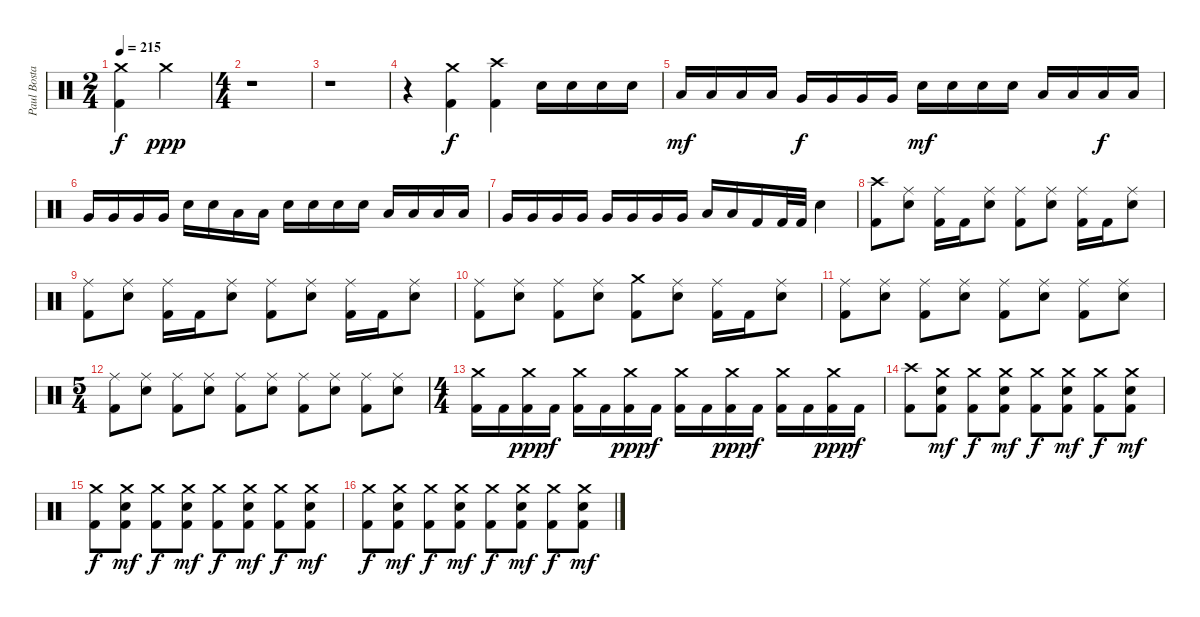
\track ("Paul Bostaph" "Paul Bosta") {instrument percussion}
\staff {score}
\articulation defaults
\ts (2 4)
\tempo 215
\clef neutral
\ks c
("Kick (hit) 2" "Crash medium (hit)").4{dy f} "Crash medium (hit)".4{dy ppp} |
\ts (4 4)
r.1 |
r.1 |
r.4 ("Kick (hit) 2" "Crash medium (hit)").4{dy f} ("Kick (hit) 2" "Crash high (hit)").4 "Electric Snare (hit)".16 "Electric Snare (hit)".16 "Electric Snare (hit)".16 "Electric Snare (hit)".16 |
"Low Tom (hit)".16{dy mf} "Low Tom (hit)".16 "Low Tom (hit)".16 "Low Tom (hit)".16 "Very Low Tom (hit)".16{dy f} "Very Low Tom (hit)".16 "Very Low Tom (hit)".16 "Very Low Tom (hit)".16 "Electric Snare (hit)".16{dy mf} "Electric Snare (hit)".16 "Electric Snare (hit)".16 "Electric Snare (hit)".16 "Low Tom (hit)".16 "Low Tom (hit)".16 "Low Tom (hit)".16{dy f} "Low Tom (hit)".16 |
"Very Low Tom (hit)".16 "Very Low Tom (hit)".16 "Very Low Tom (hit)".16 "Very Low Tom (hit)".16 "Electric Snare (hit)".16 "Electric Snare (hit)".16 "Low Tom (hit)".16 "Low Tom (hit)".16 "Electric Snare (hit)".16 "Electric Snare (hit)".16 "Electric Snare (hit)".16 "Electric Snare (hit)".16 "Low Tom (hit)".16 "Low Tom (hit)".16 "Low Tom (hit)".16 "Low Tom (hit)".16 |
"Very Low Tom (hit)".16 "Very Low Tom (hit)".16 "Very Low Tom (hit)".16 "Very Low Tom (hit)".16 "Very Low Tom (hit)".16 "Very Low Tom (hit)".16 "Very Low Tom (hit)".16 "Very Low Tom (hit)".16 "Low Floor Tom (hit)".16 "Low Floor Tom (hit)".16 "Kick (hit) 2".16 "Kick (hit) 2".32 "Kick (hit) 2".32 "Electric Snare (hit)".4 |
("Kick (hit) 2" "Crash high (hit)").8 ("Electric Snare (hit)" "Ride (middle)").8 ("Kick (hit) 2" "Ride (middle)").16 "Kick (hit) 2".16 ("Electric Snare (hit)" "Ride (middle)").8 ("Kick (hit) 2" "Ride (middle)").8 ("Electric Snare (hit)" "Ride (middle)").8 ("Kick (hit) 2" "Ride (middle)").16 "Kick (hit) 2".16 ("Electric Snare (hit)" "Ride (middle)").8 |
("Kick (hit) 2" "Ride (middle)").8 ("Electric Snare (hit)" "Ride (middle)").8 ("Kick (hit) 2" "Ride (middle)").16 "Kick (hit) 2".16 ("Electric Snare (hit)" "Ride (middle)").8 ("Kick (hit) 2" "Ride (middle)").8 ("Electric Snare (hit)" "Ride (middle)").8 ("Kick (hit) 2" "Ride (middle)").16 "Kick (hit) 2".16 ("Electric Snare (hit)" "Ride (middle)").8 |
("Kick (hit) 2" "Ride (middle)").8 ("Electric Snare (hit)" "Ride (middle)").8 ("Kick (hit) 2" "Ride (middle)").8 ("Electric Snare (hit)" "Ride (middle)").8 ("Kick (hit) 2" "Crash medium (hit)").8 ("Electric Snare (hit)" "Ride (middle)").8 ("Kick (hit) 2" "Ride (middle)").16 "Kick (hit) 2".16 ("Electric Snare (hit)" "Ride (middle)").8 |
("Kick (hit) 2" "Ride (middle)").8 ("Electric Snare (hit)" "Ride (middle)").8 ("Kick (hit) 2" "Ride (middle)").8 ("Electric Snare (hit)" "Ride (middle)").8 ("Kick (hit) 2" "Ride (middle)").8 ("Electric Snare (hit)" "Ride (middle)").8 ("Kick (hit) 2" "Ride (middle)").8 ("Electric Snare (hit)" "Ride (middle)").8 |
\ts (5 4)
("Kick (hit) 2" "Ride (middle)").8 ("Electric Snare (hit)" "Ride (middle)").8 ("Kick (hit) 2" "Ride (middle)").8 ("Electric Snare (hit)" "Ride (middle)").8 ("Kick (hit) 2" "Ride (middle)").8 ("Electric Snare (hit)" "Ride (middle)").8 ("Kick (hit) 2" "Ride (middle)").8 ("Electric Snare (hit)" "Ride (middle)").8 ("Kick (hit) 2" "Ride (middle)").8 ("Electric Snare (hit)" "Ride (middle)").8 |
\ts (4 4)
("Crash medium (hit)" "Kick (hit) 2").16 "Kick (hit) 2".16 ("Crash medium (hit)" "Kick (hit) 2").16{dy ppp} "Kick (hit) 2".16{dy f} ("Crash medium (hit)" "Kick (hit) 2").16 "Kick (hit) 2".16 ("Crash medium (hit)" "Kick (hit) 2").16{dy ppp} "Kick (hit) 2".16{dy f} ("Crash medium (hit)" "Kick (hit) 2").16 "Kick (hit) 2".16 ("Crash medium (hit)" "Kick (hit) 2").16{dy ppp} "Kick (hit) 2".16{dy f} ("Crash medium (hit)" "Kick (hit) 2").16 "Kick (hit) 2".16 ("Crash medium (hit)" "Kick (hit) 2").16{dy ppp} "Kick (hit) 2".16{dy f} |
("Kick (hit) 2" "Crash high (hit)").8 ("Kick (hit) 2" "Crash medium (hit)" "Electric Snare (hit)").8{dy mf} ("Kick (hit) 2" "Crash medium (hit)").8{dy f} ("Kick (hit) 2" "Crash medium (hit)" "Electric Snare (hit)").8{dy mf} ("Kick (hit) 2" "Crash medium (hit)").8{dy f} ("Kick (hit) 2" "Crash medium (hit)" "Electric Snare (hit)").8{dy mf} ("Kick (hit) 2" "Crash medium (hit)").8{dy f} ("Kick (hit) 2" "Crash medium (hit)" "Electric Snare (hit)").8{dy mf} |
("Kick (hit) 2" "Crash medium (hit)").8{dy f} ("Kick (hit) 2" "Crash medium (hit)" "Electric Snare (hit)").8{dy mf} ("Kick (hit) 2" "Crash medium (hit)").8{dy f} ("Kick (hit) 2" "Crash medium (hit)" "Electric Snare (hit)").8{dy mf} ("Kick (hit) 2" "Crash medium (hit)").8{dy f} ("Kick (hit) 2" "Crash medium (hit)" "Electric Snare (hit)").8{dy mf} ("Kick (hit) 2" "Crash medium (hit)").8{dy f} ("Kick (hit) 2" "Crash medium (hit)" "Electric Snare (hit)").8{dy mf} |
("Kick (hit) 2" "Crash medium (hit)").8{dy f} ("Kick (hit) 2" "Crash medium (hit)" "Electric Snare (hit)").8{dy mf} ("Kick (hit) 2" "Crash medium (hit)").8{dy f} ("Kick (hit) 2" "Crash medium (hit)" "Electric Snare (hit)").8{dy mf} ("Kick (hit) 2" "Crash medium (hit)").8{dy f} ("Kick (hit) 2" "Crash medium (hit)" "Electric Snare (hit)").8{dy mf} ("Kick (hit) 2" "Crash medium (hit)").8{dy f} ("Kick (hit) 2" "Crash medium (hit)" "Electric Snare (hit)").8{dy mf}
